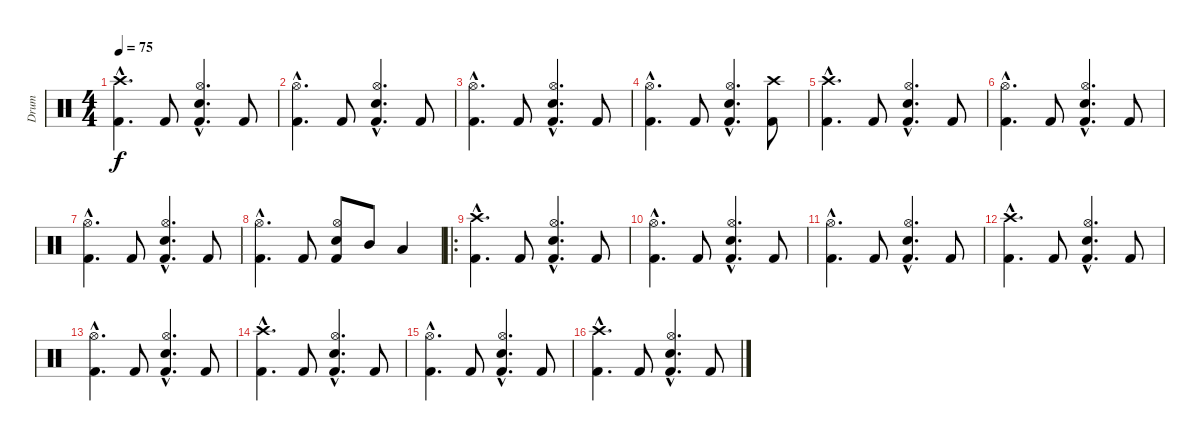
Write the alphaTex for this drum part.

\track ("Drum" "Drum") {instrument percussion}
\staff {score}
\articulation defaults
\ts (4 4)
\tempo 75
\clef neutral
\ks c
("Crash high (hit)"{hac} "Kick (hit) 2"{hac}).4{d dy f} "Kick (hit) 2".8 ("Hi-Hat (open)"{hac} "Snare (hit) 2"{hac} "Kick (hit) 2"{hac}).4{d} "Kick (hit) 2".8 |
("Hi-Hat (open)"{hac} "Kick (hit) 2"{hac}).4{d} "Kick (hit) 2".8 ("Hi-Hat (open)"{hac} "Snare (hit) 2"{hac} "Kick (hit) 2"{hac}).4{d} "Kick (hit) 2".8 |
("Hi-Hat (open)"{hac} "Kick (hit) 2"{hac}).4{d} "Kick (hit) 2".8 ("Hi-Hat (open)"{hac} "Snare (hit) 2"{hac} "Kick (hit) 2"{hac}).4{d} "Kick (hit) 2".8 |
("Hi-Hat (open)"{hac} "Kick (hit) 2"{hac}).4{d} "Kick (hit) 2".8 ("Hi-Hat (open)"{hac} "Snare (hit) 2"{hac} "Kick (hit) 2"{hac}).4{d} ("Crash high (hit)" "Kick (hit) 2").8 |
("Crash high (hit)"{hac} "Kick (hit) 2"{hac}).4{d} "Kick (hit) 2".8 ("Hi-Hat (open)"{hac} "Snare (hit) 2"{hac} "Kick (hit) 2"{hac}).4{d} "Kick (hit) 2".8 |
("Hi-Hat (open)"{hac} "Kick (hit) 2"{hac}).4{d} "Kick (hit) 2".8 ("Hi-Hat (open)"{hac} "Snare (hit) 2"{hac} "Kick (hit) 2"{hac}).4{d} "Kick (hit) 2".8 |
("Hi-Hat (open)"{hac} "Kick (hit) 2"{hac}).4{d} "Kick (hit) 2".8 ("Hi-Hat (open)"{hac} "Snare (hit) 2"{hac} "Kick (hit) 2"{hac}).4{d} "Kick (hit) 2".8 |
("Hi-Hat (open)"{hac} "Kick (hit) 2"{hac}).4{d} "Kick (hit) 2".8 ("Hi-Hat (open)" "Snare (hit) 2" "Kick (hit) 2").8 "Mid Tom (hit)".8 "Low Tom (hit)".4 |
\ro
("Crash high (hit)"{hac} "Kick (hit) 2"{hac}).4{d} "Kick (hit) 2".8 ("Hi-Hat (open)"{hac} "Snare (hit) 2"{hac} "Kick (hit) 2"{hac}).4{d} "Kick (hit) 2".8 |
("Hi-Hat (open)"{hac} "Kick (hit) 2"{hac}).4{d} "Kick (hit) 2".8 ("Hi-Hat (open)"{hac} "Snare (hit) 2"{hac} "Kick (hit) 2"{hac}).4{d} "Kick (hit) 2".8 |
("Hi-Hat (open)"{hac} "Kick (hit) 2"{hac}).4{d} "Kick (hit) 2".8 ("Hi-Hat (open)"{hac} "Snare (hit) 2"{hac} "Kick (hit) 2"{hac}).4{d} "Kick (hit) 2".8 |
("Crash high (hit)"{hac} "Kick (hit) 2"{hac}).4{d} "Kick (hit) 2".8 ("Hi-Hat (open)"{hac} "Snare (hit) 2"{hac} "Kick (hit) 2"{hac}).4{d} "Kick (hit) 2".8 |
("Hi-Hat (open)"{hac} "Kick (hit) 2"{hac}).4{d} "Kick (hit) 2".8 ("Hi-Hat (open)"{hac} "Snare (hit) 2"{hac} "Kick (hit) 2"{hac}).4{d} "Kick (hit) 2".8 |
("Crash high (hit)"{hac} "Kick (hit) 2"{hac}).4{d} "Kick (hit) 2".8 ("Hi-Hat (open)"{hac} "Snare (hit) 2"{hac} "Kick (hit) 2"{hac}).4{d} "Kick (hit) 2".8 |
("Hi-Hat (open)"{hac} "Kick (hit) 2"{hac}).4{d} "Kick (hit) 2".8 ("Hi-Hat (open)"{hac} "Snare (hit) 2"{hac} "Kick (hit) 2"{hac}).4{d} "Kick (hit) 2".8 |
("Crash high (hit)"{hac} "Kick (hit) 2"{hac}).4{d} "Kick (hit) 2".8 ("Hi-Hat (open)"{hac} "Snare (hit) 2"{hac} "Kick (hit) 2"{hac}).4{d} "Kick (hit) 2".8
